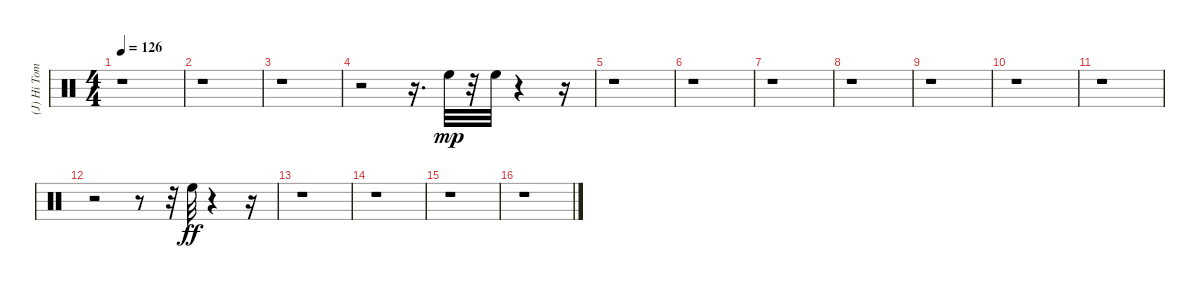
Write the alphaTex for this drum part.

\track ("(J) Hi Tom" "(J) Hi Tom") {instrument percussion}
\staff {score}
\articulation defaults
\ts (4 4)
\tempo 126
\clef neutral
\ks c
r.1{dy ff} |
r.1 |
r.1 |
r.2 r.16{d} "High Floor Tom (hit)".32{dy mp} r.32 "High Floor Tom (hit)".32 r.4 r.16 |
r.1 |
r.1 |
r.1 |
r.1 |
r.1 |
r.1 |
r.1 |
r.2 r.8 r.32 "High Floor Tom (hit)".32{dy ff} r.4 r.16 |
r.1 |
r.1 |
r.1 |
r.1
